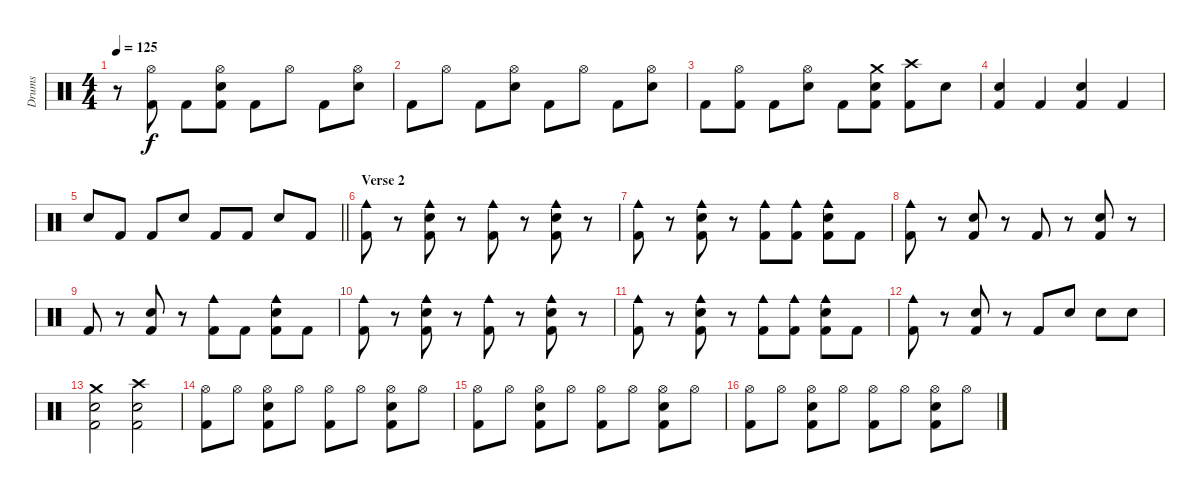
\track ("Drums" "Drums") {instrument percussion}
\staff {score}
\articulation defaults
\ts (4 4)
\tempo 125
\clef neutral
\ks c
r.8{dy f} ("Hi-Hat (open)" "Kick (hit) 2").8 "Kick (hit) 2".8 ("Hi-Hat (open)" "Snare (hit) 2" "Kick (hit) 2").8 "Kick (hit) 2".8 "Hi-Hat (open)".8 "Kick (hit) 2".8 ("Hi-Hat (open)" "Snare (hit) 2").8 |
"Kick (hit) 2".8 "Hi-Hat (open)".8 "Kick (hit) 2".8 ("Hi-Hat (open)" "Snare (hit) 2").8 "Kick (hit) 2".8 "Hi-Hat (open)".8 "Kick (hit) 2".8 ("Hi-Hat (open)" "Snare (hit) 2").8 |
"Kick (hit) 2".8 ("Hi-Hat (open)" "Kick (hit) 2").8 "Kick (hit) 2".8 ("Hi-Hat (open)" "Snare (hit) 2").8 "Kick (hit) 2".8 ("Crash medium (hit)" "Snare (hit) 2" "Kick (hit) 2").8 ("Crash high (hit)" "Kick (hit) 2").8 "Snare (hit) 2".8 |
("Snare (hit) 2" "Kick (hit) 2").4 "Kick (hit) 2".4 ("Snare (hit) 2" "Kick (hit) 2").4 "Kick (hit) 2".4 |
\barLineRight lightlight "Snare (hit) 2".8 "Kick (hit) 2".8 "Kick (hit) 2".8 "Snare (hit) 2".8 "Kick (hit) 2".8 "Kick (hit) 2".8 "Snare (hit) 2".8 "Kick (hit) 2".8
|
\section ("" "Verse 2")
("Cowbell medium (hit)" "Kick (hit) 2").8 r.8 ("Cowbell medium (hit)" "Snare (hit) 2" "Kick (hit) 2").8 r.8 ("Cowbell medium (hit)" "Kick (hit) 2").8 r.8 ("Cowbell medium (hit)" "Snare (hit) 2" "Kick (hit) 2").8 r.8 |
("Cowbell medium (hit)" "Kick (hit) 2").8 r.8 ("Cowbell medium (hit)" "Snare (hit) 2" "Kick (hit) 2").8 r.8 ("Cowbell medium (hit)" "Kick (hit) 2").8 ("Cowbell medium (hit)" "Kick (hit) 2").8 ("Cowbell medium (hit)" "Snare (hit) 2" "Kick (hit) 2").8 "Kick (hit) 2".8 |
("Cowbell medium (hit)" "Kick (hit) 2").8 r.8 ("Snare (hit) 2" "Kick (hit) 2").8 r.8 "Kick (hit) 2".8 r.8 ("Snare (hit) 2" "Kick (hit) 2").8 r.8 |
"Kick (hit) 2".8 r.8 ("Snare (hit) 2" "Kick (hit) 2").8 r.8 ("Cowbell medium (hit)" "Kick (hit) 2").8 "Kick (hit) 2".8 ("Cowbell medium (hit)" "Snare (hit) 2" "Kick (hit) 2").8 "Kick (hit) 2".8 |
("Cowbell medium (hit)" "Kick (hit) 2").8 r.8 ("Cowbell medium (hit)" "Snare (hit) 2" "Kick (hit) 2").8 r.8 ("Cowbell medium (hit)" "Kick (hit) 2").8 r.8 ("Cowbell medium (hit)" "Snare (hit) 2" "Kick (hit) 2").8 r.8 |
("Cowbell medium (hit)" "Kick (hit) 2").8 r.8 ("Cowbell medium (hit)" "Snare (hit) 2" "Kick (hit) 2").8 r.8 ("Cowbell medium (hit)" "Kick (hit) 2").8 ("Cowbell medium (hit)" "Kick (hit) 2").8 ("Cowbell medium (hit)" "Snare (hit) 2" "Kick (hit) 2").8 "Kick (hit) 2".8 |
("Cowbell medium (hit)" "Kick (hit) 2").8 r.8 ("Snare (hit) 2" "Kick (hit) 2").8 r.8 "Kick (hit) 2".8 "Snare (hit) 2".8 "Snare (hit) 2".8 "Snare (hit) 2".8 |
("Crash medium (hit)" "Snare (hit) 2" "Kick (hit) 2").2 ("Crash high (hit)" "Snare (hit) 2" "Kick (hit) 2").2 |
("Hi-Hat (open)" "Kick (hit) 2").8 "Hi-Hat (open)".8 ("Hi-Hat (open)" "Snare (hit) 2" "Kick (hit) 2").8 "Hi-Hat (open)".8 ("Hi-Hat (open)" "Kick (hit) 2").8 "Hi-Hat (open)".8 ("Hi-Hat (open)" "Snare (hit) 2" "Kick (hit) 2").8 "Hi-Hat (open)".8 |
("Hi-Hat (open)" "Kick (hit) 2").8 "Hi-Hat (open)".8 ("Hi-Hat (open)" "Snare (hit) 2" "Kick (hit) 2").8 "Hi-Hat (open)".8 ("Hi-Hat (open)" "Kick (hit) 2").8 "Hi-Hat (open)".8 ("Hi-Hat (open)" "Snare (hit) 2" "Kick (hit) 2").8 "Hi-Hat (open)".8 |
("Hi-Hat (open)" "Kick (hit) 2").8 "Hi-Hat (open)".8 ("Hi-Hat (open)" "Snare (hit) 2" "Kick (hit) 2").8 "Hi-Hat (open)".8 ("Hi-Hat (open)" "Kick (hit) 2").8 "Hi-Hat (open)".8 ("Hi-Hat (open)" "Snare (hit) 2" "Kick (hit) 2").8 "Hi-Hat (open)".8
